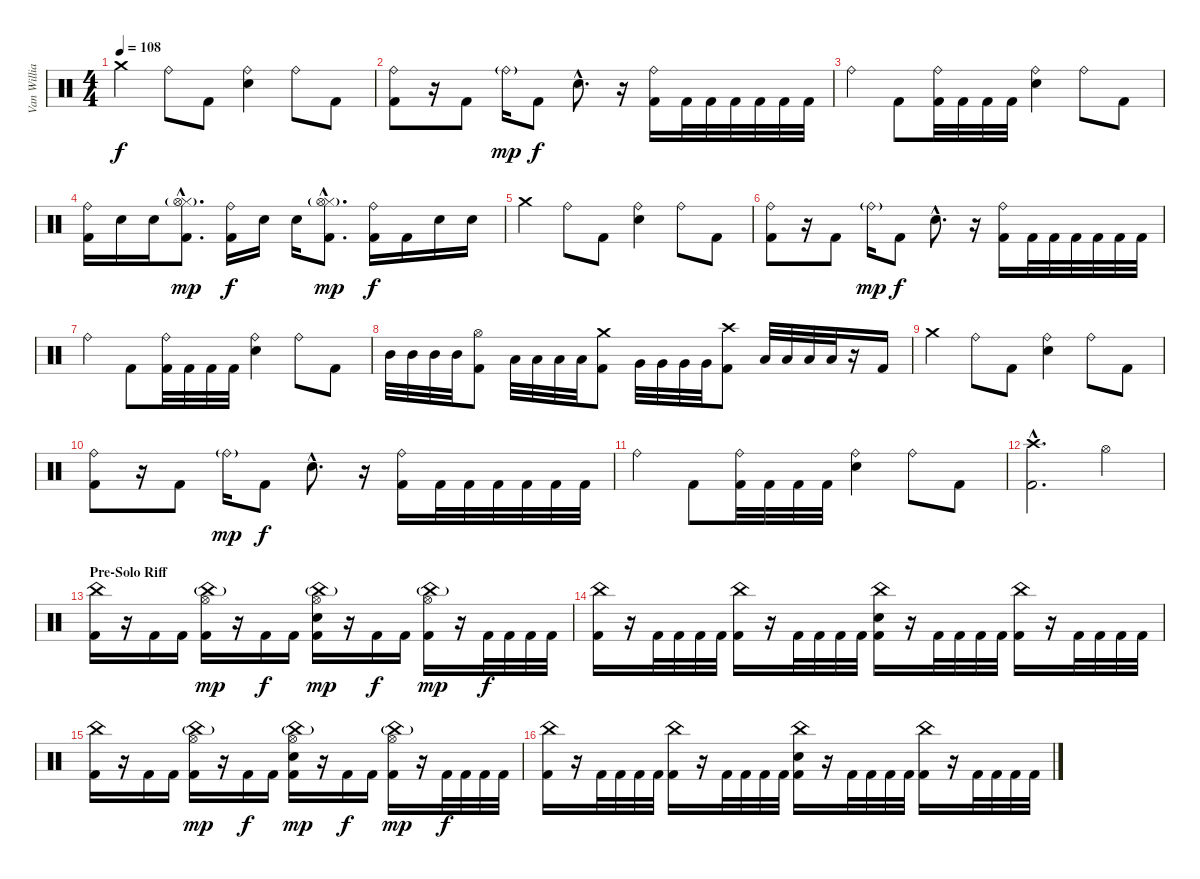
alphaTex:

\track ("Van Williams" "Van Willia") {instrument percussion}
\staff {score}
\articulation defaults
\ts (4 4)
\tempo 108
\clef neutral
\ks c "Crash medium (hit)".4{dy f} "Ride (bell)".8 "Kick (hit) 2".8
("Ride (bell)" "Electric Snare (hit)").4 "Ride (bell)".8 "Kick (hit) 2".8 |
("Ride (bell)" "Kick (hit) 2").8 r.16 "Kick (hit) 2".8 "Ride (bell)"{g}.16{dy mp} "Kick (hit) 2".8{dy f} "Electric Snare (hit)"{hac}.8{d} r.16 ("Ride (bell)" "Kick (hit) 2").16 "Kick (hit) 2".32 "Kick (hit) 2".32 "Kick (hit) 2".32 "Kick (hit) 2".32 "Kick (hit) 2".32 "Kick (hit) 2".32 |
"Ride (bell)".4 "Kick (hit) 2".8 ("Ride (bell)" "Kick (hit) 2").32 "Kick (hit) 2".32 "Kick (hit) 2".32 "Kick (hit) 2".32 ("Ride (bell)" "Electric Snare (hit)").4 "Ride (bell)".8 "Kick (hit) 2".8 |
("Ride (bell)" "Kick (hit) 2").16 "Electric Snare (hit)".16 "Electric Snare (hit)".16 ("Hi-Hat (closed)"{hac} "Hi-Hat (open)"{g hac} "Kick (hit) 2"{hac}).8{d dy mp} ("Ride (bell)" "Kick (hit) 2").16{dy f} "Electric Snare (hit)".16 "Electric Snare (hit)".16 ("Hi-Hat (closed)"{hac} "Hi-Hat (open)"{g hac} "Kick (hit) 2"{hac}).8{d dy mp} ("Ride (bell)" "Kick (hit) 2").16{dy f} "Kick (hit) 2".16 "Electric Snare (hit)".16 "Electric Snare (hit)".16 |
"Crash medium (hit)".4 "Ride (bell)".8 "Kick (hit) 2".8 ("Ride (bell)" "Electric Snare (hit)").4 "Ride (bell)".8 "Kick (hit) 2".8 |
("Ride (bell)" "Kick (hit) 2").8 r.16 "Kick (hit) 2".8 "Ride (bell)"{g}.16{dy mp} "Kick (hit) 2".8{dy f} "Electric Snare (hit)"{hac}.8{d} r.16 ("Ride (bell)" "Kick (hit) 2").16 "Kick (hit) 2".32 "Kick (hit) 2".32 "Kick (hit) 2".32 "Kick (hit) 2".32 "Kick (hit) 2".32 "Kick (hit) 2".32 |
"Ride (bell)".4 "Kick (hit) 2".8 ("Ride (bell)" "Kick (hit) 2").32 "Kick (hit) 2".32 "Kick (hit) 2".32 "Kick (hit) 2".32 ("Ride (bell)" "Electric Snare (hit)").4 "Ride (bell)".8 "Kick (hit) 2".8 |
"Mid Tom (hit)".32 "Mid Tom (hit)".32 "Mid Tom (hit)".32 "Mid Tom (hit)".32 ("Hi-Hat (open)" "Kick (hit) 2").8 "Low Tom (hit)".32 "Low Tom (hit)".32 "Low Tom (hit)".32 "Low Tom (hit)".32 ("Crash medium (hit)" "Kick (hit) 2").8 "Very Low Tom (hit)".32 "Very Low Tom (hit)".32 "Very Low Tom (hit)".32 "Very Low Tom (hit)".32 ("Crash high (hit)" "Kick (hit) 2").8 "Low Floor Tom (hit)".32 "Low Floor Tom (hit)".32 "Low Floor Tom (hit)".32 "Low Floor Tom (hit)".32 r.16 "Kick (hit) 2".16 |
"Crash medium (hit)".4 "Ride (bell)".8 "Kick (hit) 2".8 ("Ride (bell)" "Electric Snare (hit)").4 "Ride (bell)".8 "Kick (hit) 2".8 |
("Ride (bell)" "Kick (hit) 2").8 r.16 "Kick (hit) 2".8 "Ride (bell)"{g}.16{dy mp} "Kick (hit) 2".8{dy f} "Electric Snare (hit)"{hac}.8{d} r.16 ("Ride (bell)" "Kick (hit) 2").16 "Kick (hit) 2".32 "Kick (hit) 2".32 "Kick (hit) 2".32 "Kick (hit) 2".32 "Kick (hit) 2".32 "Kick (hit) 2".32 |
"Ride (bell)".4 "Kick (hit) 2".8 ("Ride (bell)" "Kick (hit) 2").32 "Kick (hit) 2".32 "Kick (hit) 2".32 "Kick (hit) 2".32 ("Ride (bell)" "Electric Snare (hit)").4 "Ride (bell)".8 "Kick (hit) 2".8 |
("Crash high (hit)"{hac} "Kick (hit) 2"{hac}).2{d} "Hi-Hat (open)".4 |
\section ("" "Pre-Solo Riff")
("China (hit)" "Kick (hit) 2").16 r.16 "Kick (hit) 2".16 "Kick (hit) 2".16 ("China (hit)"{g} "Hi-Hat (open)" "Kick (hit) 2").16{dy mp} r.16 "Kick (hit) 2".16{dy f} "Kick (hit) 2".16 ("China (hit)"{g} "Hi-Hat (open)" "Electric Snare (hit)" "Kick (hit) 2").16{dy mp} r.16 "Kick (hit) 2".16{dy f} "Kick (hit) 2".16 ("China (hit)"{g} "Hi-Hat (open)" "Kick (hit) 2").16{dy mp} r.16 "Kick (hit) 2".32{dy f} "Kick (hit) 2".32 "Kick (hit) 2".32 "Kick (hit) 2".32 |
("China (hit)" "Kick (hit) 2").16 r.16 "Kick (hit) 2".32 "Kick (hit) 2".32 "Kick (hit) 2".32 "Kick (hit) 2".32 ("China (hit)" "Kick (hit) 2").16 r.16 "Kick (hit) 2".32 "Kick (hit) 2".32 "Kick (hit) 2".32 "Kick (hit) 2".32 ("China (hit)" "Electric Snare (hit)" "Kick (hit) 2").16 r.16 "Kick (hit) 2".32 "Kick (hit) 2".32 "Kick (hit) 2".32 "Kick (hit) 2".32 ("China (hit)" "Kick (hit) 2").16 r.16 "Kick (hit) 2".32 "Kick (hit) 2".32 "Kick (hit) 2".32 "Kick (hit) 2".32 |
("China (hit)" "Kick (hit) 2").16 r.16 "Kick (hit) 2".16 "Kick (hit) 2".16 ("China (hit)"{g} "Hi-Hat (open)" "Kick (hit) 2").16{dy mp} r.16 "Kick (hit) 2".16{dy f} "Kick (hit) 2".16 ("China (hit)"{g} "Hi-Hat (open)" "Electric Snare (hit)" "Kick (hit) 2").16{dy mp} r.16 "Kick (hit) 2".16{dy f} "Kick (hit) 2".16 ("China (hit)"{g} "Hi-Hat (open)" "Kick (hit) 2").16{dy mp} r.16 "Kick (hit) 2".32{dy f} "Kick (hit) 2".32 "Kick (hit) 2".32 "Kick (hit) 2".32 |
("China (hit)" "Kick (hit) 2").16 r.16 "Kick (hit) 2".32 "Kick (hit) 2".32 "Kick (hit) 2".32 "Kick (hit) 2".32 ("China (hit)" "Kick (hit) 2").16 r.16 "Kick (hit) 2".32 "Kick (hit) 2".32 "Kick (hit) 2".32 "Kick (hit) 2".32 ("China (hit)" "Electric Snare (hit)" "Kick (hit) 2").16 r.16 "Kick (hit) 2".32 "Kick (hit) 2".32 "Kick (hit) 2".32 "Kick (hit) 2".32 ("China (hit)" "Kick (hit) 2").16 r.16 "Kick (hit) 2".32 "Kick (hit) 2".32 "Kick (hit) 2".32 "Kick (hit) 2".32
